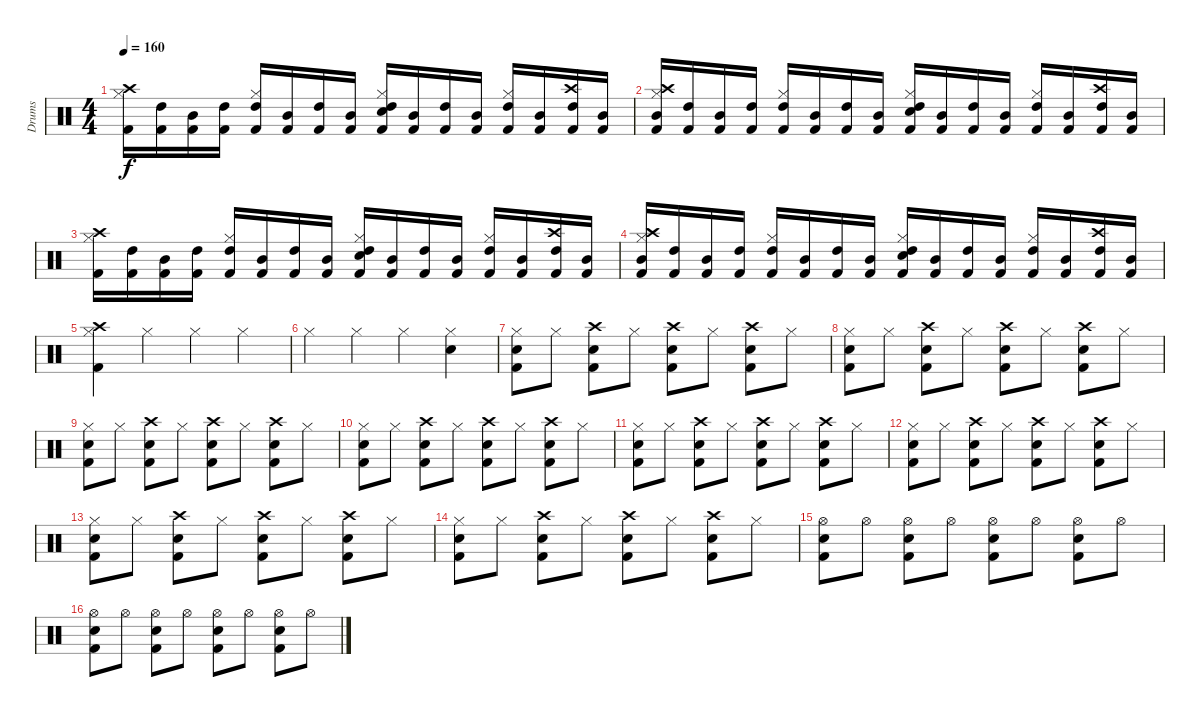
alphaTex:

\track ("Drums" "Drums") {instrument percussion}
\staff {score}
\articulation defaults
\ts (4 4)
\tempo 160
\clef neutral
\ks c
("Kick (hit) 2" "Hi-Hat (closed)" "Crash high (hit)").16{dy f} ("Kick (hit) 2" "High Tom (hit)").16 ("Kick (hit) 2" "Mid Tom (hit)").16 ("Kick (hit) 2" "High Tom (hit)").16 ("Kick (hit) 2" "Hi-Hat (closed)" "High Tom (hit)").16 ("Kick (hit) 2" "Mid Tom (hit)").16 ("Kick (hit) 2" "High Tom (hit)").16 ("Kick (hit) 2" "Mid Tom (hit)").16 ("Kick (hit) 2" "Hi-Hat (closed)" "Electric Snare (hit)" "High Tom (hit)").16 ("Kick (hit) 2" "Mid Tom (hit)").16 ("Kick (hit) 2" "High Tom (hit)").16 ("Kick (hit) 2" "Mid Tom (hit)").16 ("Kick (hit) 2" "Hi-Hat (closed)" "High Tom (hit)").16 ("Kick (hit) 2" "Mid Tom (hit)").16 ("Kick (hit) 2" "High Tom (hit)" "Crash high (hit)").16 ("Kick (hit) 2" "Mid Tom (hit)").16 |
("Kick (hit) 2" "Hi-Hat (closed)" "Mid Tom (hit)" "Crash high (hit)").16 ("Kick (hit) 2" "High Tom (hit)").16 ("Kick (hit) 2" "Mid Tom (hit)").16 ("Kick (hit) 2" "High Tom (hit)").16 ("Kick (hit) 2" "Hi-Hat (closed)" "High Tom (hit)").16 ("Kick (hit) 2" "Mid Tom (hit)").16 ("Kick (hit) 2" "High Tom (hit)").16 ("Kick (hit) 2" "Mid Tom (hit)").16 ("Kick (hit) 2" "Hi-Hat (closed)" "Electric Snare (hit)" "High Tom (hit)").16 ("Kick (hit) 2" "Mid Tom (hit)").16 ("Kick (hit) 2" "High Tom (hit)").16 ("Kick (hit) 2" "Mid Tom (hit)").16 ("Kick (hit) 2" "Hi-Hat (closed)" "High Tom (hit)").16 ("Kick (hit) 2" "Mid Tom (hit)").16 ("Kick (hit) 2" "High Tom (hit)" "Crash high (hit)").16 ("Kick (hit) 2" "Mid Tom (hit)").16 |
("Kick (hit) 2" "Hi-Hat (closed)" "Crash high (hit)").16 ("Kick (hit) 2" "High Tom (hit)").16 ("Kick (hit) 2" "Mid Tom (hit)").16 ("Kick (hit) 2" "High Tom (hit)").16 ("Kick (hit) 2" "Hi-Hat (closed)" "High Tom (hit)").16 ("Kick (hit) 2" "Mid Tom (hit)").16 ("Kick (hit) 2" "High Tom (hit)").16 ("Kick (hit) 2" "Mid Tom (hit)").16 ("Kick (hit) 2" "Hi-Hat (closed)" "Electric Snare (hit)" "High Tom (hit)").16 ("Kick (hit) 2" "Mid Tom (hit)").16 ("Kick (hit) 2" "High Tom (hit)").16 ("Kick (hit) 2" "Mid Tom (hit)").16 ("Kick (hit) 2" "Hi-Hat (closed)" "High Tom (hit)").16 ("Kick (hit) 2" "Mid Tom (hit)").16 ("Kick (hit) 2" "High Tom (hit)" "Crash high (hit)").16 ("Kick (hit) 2" "Mid Tom (hit)").16 |
("Kick (hit) 2" "Hi-Hat (closed)" "Mid Tom (hit)" "Crash high (hit)").16 ("Kick (hit) 2" "High Tom (hit)").16 ("Kick (hit) 2" "Mid Tom (hit)").16 ("Kick (hit) 2" "High Tom (hit)").16 ("Kick (hit) 2" "Hi-Hat (closed)" "High Tom (hit)").16 ("Kick (hit) 2" "Mid Tom (hit)").16 ("Kick (hit) 2" "High Tom (hit)").16 ("Kick (hit) 2" "Mid Tom (hit)").16 ("Kick (hit) 2" "Hi-Hat (closed)" "Electric Snare (hit)" "High Tom (hit)").16 ("Kick (hit) 2" "Mid Tom (hit)").16 ("Kick (hit) 2" "High Tom (hit)").16 ("Kick (hit) 2" "Mid Tom (hit)").16 ("Kick (hit) 2" "Hi-Hat (closed)" "High Tom (hit)").16 ("Kick (hit) 2" "Mid Tom (hit)").16 ("Kick (hit) 2" "High Tom (hit)" "Crash high (hit)").16 ("Kick (hit) 2" "Mid Tom (hit)").16 |
("Hi-Hat (closed)" "Kick (hit) 2" "Crash high (hit)").4 "Hi-Hat (closed)".4 "Hi-Hat (closed)".4 "Hi-Hat (closed)".4 |
"Hi-Hat (closed)".4 "Hi-Hat (closed)".4 "Hi-Hat (closed)".4 ("Hi-Hat (closed)" "Electric Snare (hit)").4 |
("Hi-Hat (closed)" "Kick (hit) 2" "Electric Snare (hit)").8 "Hi-Hat (closed)".8 ("Crash high (hit)" "Kick (hit) 2" "Electric Snare (hit)").8 "Hi-Hat (closed)".8 ("Crash high (hit)" "Kick (hit) 2" "Electric Snare (hit)").8 "Hi-Hat (closed)".8 ("Crash high (hit)" "Kick (hit) 2" "Electric Snare (hit)").8 "Hi-Hat (closed)".8 |
("Hi-Hat (closed)" "Kick (hit) 2" "Electric Snare (hit)").8 "Hi-Hat (closed)".8 ("Crash high (hit)" "Kick (hit) 2" "Electric Snare (hit)").8 "Hi-Hat (closed)".8 ("Crash high (hit)" "Kick (hit) 2" "Electric Snare (hit)").8 "Hi-Hat (closed)".8 ("Crash high (hit)" "Kick (hit) 2" "Electric Snare (hit)").8 "Hi-Hat (closed)".8 |
("Hi-Hat (closed)" "Kick (hit) 2" "Electric Snare (hit)").8 "Hi-Hat (closed)".8 ("Crash high (hit)" "Kick (hit) 2" "Electric Snare (hit)").8 "Hi-Hat (closed)".8 ("Crash high (hit)" "Kick (hit) 2" "Electric Snare (hit)").8 "Hi-Hat (closed)".8 ("Crash high (hit)" "Kick (hit) 2" "Electric Snare (hit)").8 "Hi-Hat (closed)".8 |
("Hi-Hat (closed)" "Kick (hit) 2" "Electric Snare (hit)").8 "Hi-Hat (closed)".8 ("Crash high (hit)" "Kick (hit) 2" "Electric Snare (hit)").8 "Hi-Hat (closed)".8 ("Crash high (hit)" "Kick (hit) 2" "Electric Snare (hit)").8 "Hi-Hat (closed)".8 ("Crash high (hit)" "Kick (hit) 2" "Electric Snare (hit)").8 "Hi-Hat (closed)".8 |
("Hi-Hat (closed)" "Kick (hit) 2" "Electric Snare (hit)").8 "Hi-Hat (closed)".8 ("Crash high (hit)" "Kick (hit) 2" "Electric Snare (hit)").8 "Hi-Hat (closed)".8 ("Crash high (hit)" "Kick (hit) 2" "Electric Snare (hit)").8 "Hi-Hat (closed)".8 ("Crash high (hit)" "Kick (hit) 2" "Electric Snare (hit)").8 "Hi-Hat (closed)".8 |
("Hi-Hat (closed)" "Kick (hit) 2" "Electric Snare (hit)").8 "Hi-Hat (closed)".8 ("Crash high (hit)" "Kick (hit) 2" "Electric Snare (hit)").8 "Hi-Hat (closed)".8 ("Crash high (hit)" "Kick (hit) 2" "Electric Snare (hit)").8 "Hi-Hat (closed)".8 ("Crash high (hit)" "Kick (hit) 2" "Electric Snare (hit)").8 "Hi-Hat (closed)".8 |
("Hi-Hat (closed)" "Kick (hit) 2" "Electric Snare (hit)").8 "Hi-Hat (closed)".8 ("Crash high (hit)" "Kick (hit) 2" "Electric Snare (hit)").8 "Hi-Hat (closed)".8 ("Crash high (hit)" "Kick (hit) 2" "Electric Snare (hit)").8 "Hi-Hat (closed)".8 ("Crash high (hit)" "Kick (hit) 2" "Electric Snare (hit)").8 "Hi-Hat (closed)".8 |
("Hi-Hat (closed)" "Kick (hit) 2" "Electric Snare (hit)").8 "Hi-Hat (closed)".8 ("Crash high (hit)" "Kick (hit) 2" "Electric Snare (hit)").8 "Hi-Hat (closed)".8 ("Crash high (hit)" "Kick (hit) 2" "Electric Snare (hit)").8 "Hi-Hat (closed)".8 ("Crash high (hit)" "Kick (hit) 2" "Electric Snare (hit)").8 "Hi-Hat (closed)".8 |
("Hi-Hat (open)" "Kick (hit) 2" "Electric Snare (hit)").8 "Hi-Hat (open)".8 ("Hi-Hat (open)" "Kick (hit) 2" "Electric Snare (hit)").8 "Hi-Hat (open)".8 ("Hi-Hat (open)" "Kick (hit) 2" "Electric Snare (hit)").8 "Hi-Hat (open)".8 ("Hi-Hat (open)" "Kick (hit) 2" "Electric Snare (hit)").8 "Hi-Hat (open)".8 |
("Hi-Hat (open)" "Kick (hit) 2" "Electric Snare (hit)").8 "Hi-Hat (open)".8 ("Hi-Hat (open)" "Kick (hit) 2" "Electric Snare (hit)").8 "Hi-Hat (open)".8 ("Hi-Hat (open)" "Kick (hit) 2" "Electric Snare (hit)").8 "Hi-Hat (open)".8 ("Hi-Hat (open)" "Kick (hit) 2" "Electric Snare (hit)").8 "Hi-Hat (open)".8
